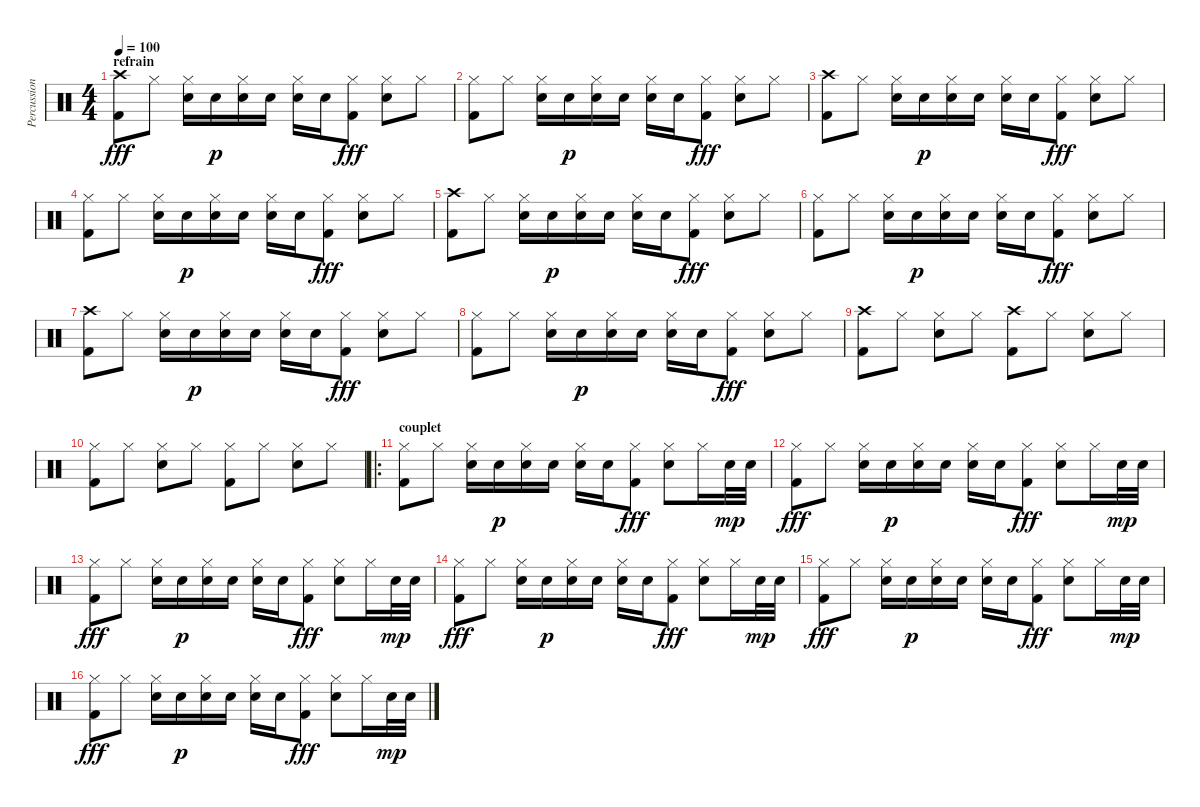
\track ("Percussions" "Percussion") {instrument percussion}
\staff {score}
\articulation defaults
\ts (4 4)
\section ("" "refrain")
\tempo 100
\clef neutral
\ks c
("Crash high (hit)" "Kick (hit) 2").8{dy fff} "Hi-Hat (closed)".8 ("Hi-Hat (closed)" "Snare (hit) 2").16 "Snare (hit) 2".16{dy p} ("Hi-Hat (closed)" "Snare (hit) 2").16 "Snare (hit) 2".16 ("Hi-Hat (closed)" "Snare (hit) 2").16 "Snare (hit) 2".16 ("Hi-Hat (closed)" "Kick (hit) 2").8{dy fff} ("Hi-Hat (closed)" "Snare (hit) 2").8 "Hi-Hat (closed)".8 |
("Hi-Hat (closed)" "Kick (hit) 2").8 "Hi-Hat (closed)".8 ("Hi-Hat (closed)" "Snare (hit) 2").16 "Snare (hit) 2".16{dy p} ("Hi-Hat (closed)" "Snare (hit) 2").16 "Snare (hit) 2".16 ("Hi-Hat (closed)" "Snare (hit) 2").16 "Snare (hit) 2".16 ("Hi-Hat (closed)" "Kick (hit) 2").8{dy fff} ("Hi-Hat (closed)" "Snare (hit) 2").8 "Hi-Hat (closed)".8 |
("Crash high (hit)" "Kick (hit) 2").8 "Hi-Hat (closed)".8 ("Hi-Hat (closed)" "Snare (hit) 2").16 "Snare (hit) 2".16{dy p} ("Hi-Hat (closed)" "Snare (hit) 2").16 "Snare (hit) 2".16 ("Hi-Hat (closed)" "Snare (hit) 2").16 "Snare (hit) 2".16 ("Hi-Hat (closed)" "Kick (hit) 2").8{dy fff} ("Hi-Hat (closed)" "Snare (hit) 2").8 "Hi-Hat (closed)".8 |
("Hi-Hat (closed)" "Kick (hit) 2").8 "Hi-Hat (closed)".8 ("Hi-Hat (closed)" "Snare (hit) 2").16 "Snare (hit) 2".16{dy p} ("Hi-Hat (closed)" "Snare (hit) 2").16 "Snare (hit) 2".16 ("Hi-Hat (closed)" "Snare (hit) 2").16 "Snare (hit) 2".16 ("Hi-Hat (closed)" "Kick (hit) 2").8{dy fff} ("Hi-Hat (closed)" "Snare (hit) 2").8 "Hi-Hat (closed)".8 |
("Crash high (hit)" "Kick (hit) 2").8 "Hi-Hat (closed)".8 ("Hi-Hat (closed)" "Snare (hit) 2").16 "Snare (hit) 2".16{dy p} ("Hi-Hat (closed)" "Snare (hit) 2").16 "Snare (hit) 2".16 ("Hi-Hat (closed)" "Snare (hit) 2").16 "Snare (hit) 2".16 ("Hi-Hat (closed)" "Kick (hit) 2").8{dy fff} ("Hi-Hat (closed)" "Snare (hit) 2").8 "Hi-Hat (closed)".8 |
("Hi-Hat (closed)" "Kick (hit) 2").8 "Hi-Hat (closed)".8 ("Hi-Hat (closed)" "Snare (hit) 2").16 "Snare (hit) 2".16{dy p} ("Hi-Hat (closed)" "Snare (hit) 2").16 "Snare (hit) 2".16 ("Hi-Hat (closed)" "Snare (hit) 2").16 "Snare (hit) 2".16 ("Hi-Hat (closed)" "Kick (hit) 2").8{dy fff} ("Hi-Hat (closed)" "Snare (hit) 2").8 "Hi-Hat (closed)".8 |
("Crash high (hit)" "Kick (hit) 2").8 "Hi-Hat (closed)".8 ("Hi-Hat (closed)" "Snare (hit) 2").16 "Snare (hit) 2".16{dy p} ("Hi-Hat (closed)" "Snare (hit) 2").16 "Snare (hit) 2".16 ("Hi-Hat (closed)" "Snare (hit) 2").16 "Snare (hit) 2".16 ("Hi-Hat (closed)" "Kick (hit) 2").8{dy fff} ("Hi-Hat (closed)" "Snare (hit) 2").8 "Hi-Hat (closed)".8 |
("Hi-Hat (closed)" "Kick (hit) 2").8 "Hi-Hat (closed)".8 ("Hi-Hat (closed)" "Snare (hit) 2").16 "Snare (hit) 2".16{dy p} ("Hi-Hat (closed)" "Snare (hit) 2").16 "Snare (hit) 2".16 ("Hi-Hat (closed)" "Snare (hit) 2").16 "Snare (hit) 2".16 ("Hi-Hat (closed)" "Kick (hit) 2").8{dy fff} ("Hi-Hat (closed)" "Snare (hit) 2").8 "Hi-Hat (closed)".8 |
("Crash high (hit)" "Kick (hit) 2").8 "Hi-Hat (closed)".8 ("Hi-Hat (closed)" "Snare (hit) 2").8 "Hi-Hat (closed)".8 ("Crash high (hit)" "Kick (hit) 2").8 "Hi-Hat (closed)".8 ("Hi-Hat (closed)" "Snare (hit) 2").8 "Hi-Hat (closed)".8 |
("Hi-Hat (closed)" "Kick (hit) 2").8 "Hi-Hat (closed)".8 ("Hi-Hat (closed)" "Snare (hit) 2").8 "Hi-Hat (closed)".8 ("Hi-Hat (closed)" "Kick (hit) 2").8 "Hi-Hat (closed)".8 ("Hi-Hat (closed)" "Snare (hit) 2").8 "Hi-Hat (closed)".8 |
\ro
\section ("" "couplet")
("Hi-Hat (closed)" "Kick (hit) 2").8 "Hi-Hat (closed)".8 ("Hi-Hat (closed)" "Snare (hit) 2").16 "Snare (hit) 2".16{dy p} ("Hi-Hat (closed)" "Snare (hit) 2").16 "Snare (hit) 2".16 ("Hi-Hat (closed)" "Snare (hit) 2").16 "Snare (hit) 2".16 ("Hi-Hat (closed)" "Kick (hit) 2").8{dy fff} ("Hi-Hat (closed)" "Snare (hit) 2").8 "Hi-Hat (closed)".16 "Snare (hit) 2".32{dy mp} "Snare (hit) 2".32 |
("Hi-Hat (closed)" "Kick (hit) 2").8{dy fff} "Hi-Hat (closed)".8 ("Hi-Hat (closed)" "Snare (hit) 2").16 "Snare (hit) 2".16{dy p} ("Hi-Hat (closed)" "Snare (hit) 2").16 "Snare (hit) 2".16 ("Hi-Hat (closed)" "Snare (hit) 2").16 "Snare (hit) 2".16 ("Hi-Hat (closed)" "Kick (hit) 2").8{dy fff} ("Hi-Hat (closed)" "Snare (hit) 2").8 "Hi-Hat (closed)".16 "Snare (hit) 2".32{dy mp} "Snare (hit) 2".32 |
("Hi-Hat (closed)" "Kick (hit) 2").8{dy fff} "Hi-Hat (closed)".8 ("Hi-Hat (closed)" "Snare (hit) 2").16 "Snare (hit) 2".16{dy p} ("Hi-Hat (closed)" "Snare (hit) 2").16 "Snare (hit) 2".16 ("Hi-Hat (closed)" "Snare (hit) 2").16 "Snare (hit) 2".16 ("Hi-Hat (closed)" "Kick (hit) 2").8{dy fff} ("Hi-Hat (closed)" "Snare (hit) 2").8 "Hi-Hat (closed)".16 "Snare (hit) 2".32{dy mp} "Snare (hit) 2".32 |
("Hi-Hat (closed)" "Kick (hit) 2").8{dy fff} "Hi-Hat (closed)".8 ("Hi-Hat (closed)" "Snare (hit) 2").16 "Snare (hit) 2".16{dy p} ("Hi-Hat (closed)" "Snare (hit) 2").16 "Snare (hit) 2".16 ("Hi-Hat (closed)" "Snare (hit) 2").16 "Snare (hit) 2".16 ("Hi-Hat (closed)" "Kick (hit) 2").8{dy fff} ("Hi-Hat (closed)" "Snare (hit) 2").8 "Hi-Hat (closed)".16 "Snare (hit) 2".32{dy mp} "Snare (hit) 2".32 |
("Hi-Hat (closed)" "Kick (hit) 2").8{dy fff} "Hi-Hat (closed)".8 ("Hi-Hat (closed)" "Snare (hit) 2").16 "Snare (hit) 2".16{dy p} ("Hi-Hat (closed)" "Snare (hit) 2").16 "Snare (hit) 2".16 ("Hi-Hat (closed)" "Snare (hit) 2").16 "Snare (hit) 2".16 ("Hi-Hat (closed)" "Kick (hit) 2").8{dy fff} ("Hi-Hat (closed)" "Snare (hit) 2").8 "Hi-Hat (closed)".16 "Snare (hit) 2".32{dy mp} "Snare (hit) 2".32 |
("Hi-Hat (closed)" "Kick (hit) 2").8{dy fff} "Hi-Hat (closed)".8 ("Hi-Hat (closed)" "Snare (hit) 2").16 "Snare (hit) 2".16{dy p} ("Hi-Hat (closed)" "Snare (hit) 2").16 "Snare (hit) 2".16 ("Hi-Hat (closed)" "Snare (hit) 2").16 "Snare (hit) 2".16 ("Hi-Hat (closed)" "Kick (hit) 2").8{dy fff} ("Hi-Hat (closed)" "Snare (hit) 2").8 "Hi-Hat (closed)".16 "Snare (hit) 2".32{dy mp} "Snare (hit) 2".32
